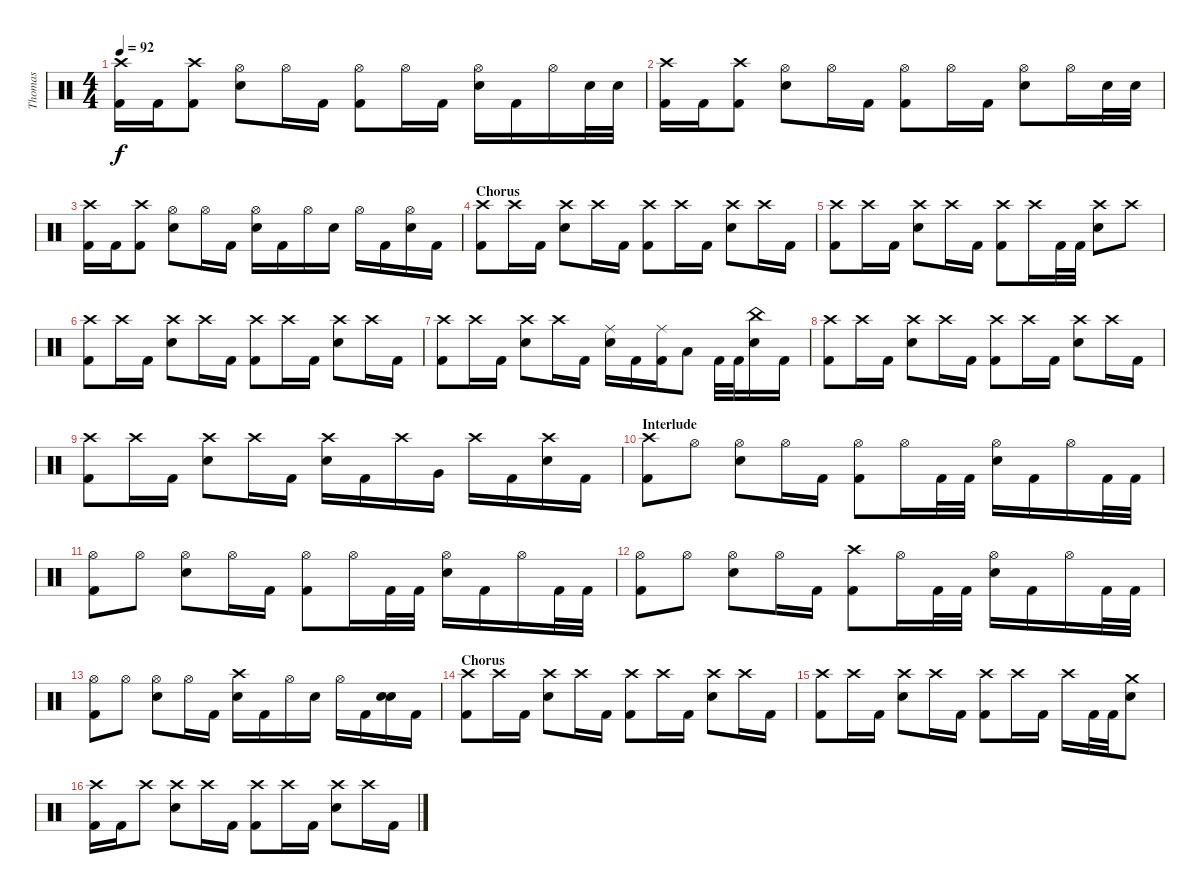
\track ("Thomas" "Thomas") {instrument percussion}
\staff {score}
\articulation defaults
\ts (4 4)
\tempo 92
\clef neutral
\ks c
("Crash high (hit)" "Kick (hit) 2").16{dy f} "Kick (hit) 2".16 ("Crash high (hit)" "Kick (hit) 2").8 ("Hi-Hat (open)" "Electric Snare (hit)").8 "Hi-Hat (open)".16 "Kick (hit) 2".16 ("Hi-Hat (open)" "Kick (hit) 2").8 "Hi-Hat (open)".16 "Kick (hit) 2".16 ("Hi-Hat (open)" "Electric Snare (hit)").16 "Kick (hit) 2".16 "Hi-Hat (open)".16 "Electric Snare (hit)".32 "Electric Snare (hit)".32 |
("Crash high (hit)" "Kick (hit) 2").16 "Kick (hit) 2".16 ("Crash high (hit)" "Kick (hit) 2").8 ("Hi-Hat (open)" "Electric Snare (hit)").8 "Hi-Hat (open)".16 "Kick (hit) 2".16 ("Hi-Hat (open)" "Kick (hit) 2").8 "Hi-Hat (open)".16 "Kick (hit) 2".16 ("Hi-Hat (open)" "Electric Snare (hit)").8 "Hi-Hat (open)".16 "Electric Snare (hit)".32 "Electric Snare (hit)".32 |
("Crash high (hit)" "Kick (hit) 2").16 "Kick (hit) 2".16 ("Crash high (hit)" "Kick (hit) 2").8 ("Hi-Hat (open)" "Electric Snare (hit)").8 "Hi-Hat (open)".16 "Kick (hit) 2".16 ("Hi-Hat (open)" "Electric Snare (hit)").16 "Kick (hit) 2".16 "Hi-Hat (open)".16 "Electric Snare (hit)".16 "Hi-Hat (open)".16 "Kick (hit) 2".16 ("Hi-Hat (open)" "Electric Snare (hit)").16 "Kick (hit) 2".16 |
\section ("" "Chorus")
("Crash high (hit)" "Kick (hit) 2").8 "Crash high (hit)".16 "Kick (hit) 2".16 ("Crash high (hit)" "Electric Snare (hit)").8 "Crash high (hit)".16 "Kick (hit) 2".16 ("Crash high (hit)" "Kick (hit) 2").8 "Crash high (hit)".16 "Kick (hit) 2".16 ("Crash high (hit)" "Electric Snare (hit)").8 "Crash high (hit)".16 "Kick (hit) 2".16 |
("Crash high (hit)" "Kick (hit) 2").8 "Crash high (hit)".16 "Kick (hit) 2".16 ("Crash high (hit)" "Electric Snare (hit)").8 "Crash high (hit)".16 "Kick (hit) 2".16 ("Crash high (hit)" "Kick (hit) 2").8 "Crash high (hit)".16 "Kick (hit) 2".32 "Kick (hit) 2".32 ("Crash high (hit)" "Electric Snare (hit)").8 "Crash high (hit)".8 |
("Crash high (hit)" "Kick (hit) 2").8 "Crash high (hit)".16 "Kick (hit) 2".16 ("Crash high (hit)" "Electric Snare (hit)").8 "Crash high (hit)".16 "Kick (hit) 2".16 ("Crash high (hit)" "Kick (hit) 2").8 "Crash high (hit)".16 "Kick (hit) 2".16 ("Crash high (hit)" "Electric Snare (hit)").8 "Crash high (hit)".16 "Kick (hit) 2".16 |
("Crash high (hit)" "Kick (hit) 2").8 "Crash high (hit)".16 "Kick (hit) 2".16 ("Crash high (hit)" "Electric Snare (hit)").8 "Crash high (hit)".16 "Kick (hit) 2".16 ("Ride (middle)" "Electric Snare (hit)").16 "Kick (hit) 2".16 ("Ride (middle)" "Kick (hit) 2").16 "Low Tom (hit)".8 "Kick (hit) 2".32 "Kick (hit) 2".32 ("China (hit)" "Electric Snare (hit)").16 "Kick (hit) 2".16 |
("Crash high (hit)" "Kick (hit) 2").8 "Crash high (hit)".16 "Kick (hit) 2".16 ("Crash high (hit)" "Electric Snare (hit)").8 "Crash high (hit)".16 "Kick (hit) 2".16 ("Crash high (hit)" "Kick (hit) 2").8 "Crash high (hit)".16 "Kick (hit) 2".16 ("Crash high (hit)" "Electric Snare (hit)").8 "Crash high (hit)".16 "Kick (hit) 2".16 |
("Crash high (hit)" "Kick (hit) 2").8 "Crash high (hit)".16 "Kick (hit) 2".16 ("Crash high (hit)" "Electric Snare (hit)").8 "Crash high (hit)".16 "Kick (hit) 2".16 ("Crash high (hit)" "Electric Snare (hit)").16 "Kick (hit) 2".16 "Crash high (hit)".16 "Very Low Tom (hit)".16 "Crash high (hit)".16 "Kick (hit) 2".16 ("Crash high (hit)" "Electric Snare (hit)").16 "Kick (hit) 2".16 |
\section ("" "Interlude")
("Crash high (hit)" "Kick (hit) 2").8 "Hi-Hat (open)".8 ("Hi-Hat (open)" "Electric Snare (hit)").8 "Hi-Hat (open)".16 "Kick (hit) 2".16 ("Hi-Hat (open)" "Kick (hit) 2").8 "Hi-Hat (open)".16 "Kick (hit) 2".32 "Kick (hit) 2".32 ("Hi-Hat (open)" "Electric Snare (hit)").16 "Kick (hit) 2".16 "Hi-Hat (open)".16 "Kick (hit) 2".32 "Kick (hit) 2".32 |
("Hi-Hat (open)" "Kick (hit) 2").8 "Hi-Hat (open)".8 ("Hi-Hat (open)" "Electric Snare (hit)").8 "Hi-Hat (open)".16 "Kick (hit) 2".16 ("Hi-Hat (open)" "Kick (hit) 2").8 "Hi-Hat (open)".16 "Kick (hit) 2".32 "Kick (hit) 2".32 ("Hi-Hat (open)" "Electric Snare (hit)").16 "Kick (hit) 2".16 "Hi-Hat (open)".16 "Kick (hit) 2".32 "Kick (hit) 2".32 |
("Hi-Hat (open)" "Kick (hit) 2").8 "Hi-Hat (open)".8 ("Hi-Hat (open)" "Electric Snare (hit)").8 "Hi-Hat (open)".16 "Kick (hit) 2".16 ("Crash high (hit)" "Kick (hit) 2").8 "Hi-Hat (open)".16 "Kick (hit) 2".32 "Kick (hit) 2".32 ("Hi-Hat (open)" "Electric Snare (hit)").16 "Kick (hit) 2".16 "Hi-Hat (open)".16 "Kick (hit) 2".32 "Kick (hit) 2".32 |
("Hi-Hat (open)" "Kick (hit) 2").8 "Hi-Hat (open)".8 ("Hi-Hat (open)" "Electric Snare (hit)").8 "Hi-Hat (open)".16 "Kick (hit) 2".16 ("Crash high (hit)" "Electric Snare (hit)").16 "Kick (hit) 2".16 "Hi-Hat (open)".16 "Electric Snare (hit)".16 "Hi-Hat (open)".16 "Kick (hit) 2".16 ("Electric Snare (hit)" "Electric Snare (hit)").16{bd 120} "Kick (hit) 2".16 |
\section ("" "Chorus")
("Crash high (hit)" "Kick (hit) 2").8 "Crash high (hit)".16 "Kick (hit) 2".16 ("Crash high (hit)" "Electric Snare (hit)").8 "Crash high (hit)".16 "Kick (hit) 2".16 ("Crash high (hit)" "Kick (hit) 2").8 "Crash high (hit)".16 "Kick (hit) 2".16 ("Crash high (hit)" "Electric Snare (hit)").8 "Crash high (hit)".16 "Kick (hit) 2".16 |
("Crash high (hit)" "Kick (hit) 2").8 "Crash high (hit)".16 "Kick (hit) 2".16 ("Crash high (hit)" "Electric Snare (hit)").8 "Crash high (hit)".16 "Kick (hit) 2".16 ("Crash high (hit)" "Kick (hit) 2").8 "Crash high (hit)".16 "Kick (hit) 2".16 "Crash high (hit)".16 "Kick (hit) 2".32 "Kick (hit) 2".32 ("Crash medium (hit)" "Electric Snare (hit)").8 |
("Crash high (hit)" "Kick (hit) 2").16 "Kick (hit) 2".16 "Crash high (hit)".8 ("Crash high (hit)" "Electric Snare (hit)").8 "Crash high (hit)".16 "Kick (hit) 2".16 ("Crash high (hit)" "Kick (hit) 2").8 "Crash high (hit)".16 "Kick (hit) 2".16 ("Crash high (hit)" "Electric Snare (hit)").8 "Crash high (hit)".16 "Kick (hit) 2".16
